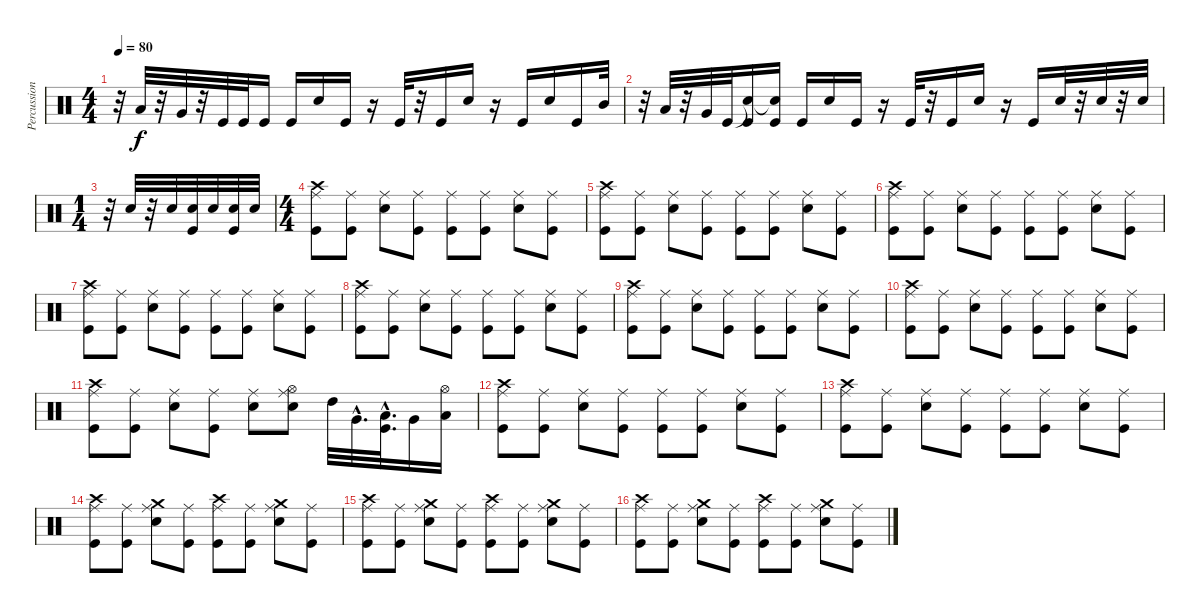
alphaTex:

\track ("Percussions" "Percussion") {instrument percussion}
\staff {score}
\articulation defaults
\ts (4 4)
\tempo 80
\clef neutral
\ks c
r.32{dy f} "Low Tom (hit)".32 r.32 "Very Low Tom (hit)".32 r.32 "Kick (hit)".32 "Kick (hit)".32 "Kick (hit)".16 "Kick (hit)".16 "Electric Snare (hit)".16 "Kick (hit)".16 r.16 "Kick (hit)".32 r.32 "Kick (hit)".16 "Snare (hit) 2".16 r.16 "Kick (hit)".16 "Snare (hit) 2".16 "Kick (hit)".16 "Mid Tom (hit)".32 |
r.32 "Low Tom (hit)".32 r.32 "Very Low Tom (hit)".32 "Kick (hit)".32 ("Snare (hit)"{t} "Kick (hit)").16 ("Snare (hit)"{t} "Kick (hit)").16 "Kick (hit)".16 "Electric Snare (hit)".16 "Kick (hit)".16 r.16 "Kick (hit)".32 r.32 "Kick (hit)".16 "Snare (hit) 2".16 r.16 "Kick (hit)".16 "Electric Snare (hit)".32 r.32 "Electric Snare (hit)".32 r.32 "Electric Snare (hit)".32 |
\ts (1 4)
r.32 "Electric Snare (hit)".32 r.32 "Electric Snare (hit)".32 ("Electric Snare (hit)" "Kick (hit)").32 "Electric Snare (hit)".32 ("Electric Snare (hit)" "Kick (hit)").32 "Electric Snare (hit)".32 |
\ts (4 4)
("Ride (middle)" "Crash high (hit)" "Kick (hit)").8 ("Ride (middle)" "Kick (hit)").8 ("Ride (middle)" "Electric Snare (hit)").8 ("Ride (middle)" "Kick (hit)").8 ("Ride (middle)" "Kick (hit)").8 ("Ride (middle)" "Kick (hit)").8 ("Ride (middle)" "Electric Snare (hit)").8 ("Ride (middle)" "Kick (hit)").8 |
("Ride (middle)" "Crash high (hit)" "Kick (hit)").8 ("Ride (middle)" "Kick (hit)").8 ("Ride (middle)" "Electric Snare (hit)").8 ("Ride (middle)" "Kick (hit)").8 ("Ride (middle)" "Kick (hit)").8 ("Ride (middle)" "Kick (hit)").8 ("Ride (middle)" "Electric Snare (hit)").8 ("Ride (middle)" "Kick (hit)").8 |
("Ride (middle)" "Crash high (hit)" "Kick (hit)").8 ("Ride (middle)" "Kick (hit)").8 ("Ride (middle)" "Electric Snare (hit)").8 ("Ride (middle)" "Kick (hit)").8 ("Ride (middle)" "Kick (hit)").8 ("Ride (middle)" "Kick (hit)").8 ("Ride (middle)" "Electric Snare (hit)").8 ("Ride (middle)" "Kick (hit)").8 |
("Ride (middle)" "Crash high (hit)" "Kick (hit)").8 ("Ride (middle)" "Kick (hit)").8 ("Ride (middle)" "Electric Snare (hit)").8 ("Ride (middle)" "Kick (hit)").8 ("Ride (middle)" "Kick (hit)").8 ("Ride (middle)" "Kick (hit)").8 ("Ride (middle)" "Electric Snare (hit)").8 ("Ride (middle)" "Kick (hit)").8 |
("Ride (middle)" "Crash high (hit)" "Kick (hit)").8 ("Ride (middle)" "Kick (hit)").8 ("Ride (middle)" "Electric Snare (hit)").8 ("Ride (middle)" "Kick (hit)").8 ("Ride (middle)" "Kick (hit)").8 ("Ride (middle)" "Kick (hit)").8 ("Ride (middle)" "Electric Snare (hit)").8 ("Ride (middle)" "Kick (hit)").8 |
("Ride (middle)" "Crash high (hit)" "Kick (hit)").8 ("Ride (middle)" "Kick (hit)").8 ("Ride (middle)" "Electric Snare (hit)").8 ("Ride (middle)" "Kick (hit)").8 ("Ride (middle)" "Kick (hit)").8 ("Ride (middle)" "Kick (hit)").8 ("Ride (middle)" "Electric Snare (hit)").8 ("Ride (middle)" "Kick (hit)").8 |
("Ride (middle)" "Crash high (hit)" "Kick (hit)").8 ("Ride (middle)" "Kick (hit)").8 ("Ride (middle)" "Electric Snare (hit)").8 ("Ride (middle)" "Kick (hit)").8 ("Ride (middle)" "Kick (hit)").8 ("Ride (middle)" "Kick (hit)").8 ("Ride (middle)" "Electric Snare (hit)").8 ("Ride (middle)" "Kick (hit)").8 |
("Ride (middle)" "Crash high (hit)" "Kick (hit)").8 ("Ride (middle)" "Kick (hit)").8 ("Ride (middle)" "Electric Snare (hit)").8 ("Ride (middle)" "Kick (hit)").8 ("Ride (middle)" "Electric Snare (hit)").8 ("Ride (middle)" "Hi-Hat (open)" "Electric Snare (hit)").8 "High Tom (hit)".32 "Very Low Tom (hit)"{hac}.32{d} ("Low Tom (hit)"{hac} "Kick (hit)"{hac}).32{d} "Very Low Tom (hit)".16 ("Hi-Hat (open)" "Low Floor Tom (hit)").16 |
("Ride (middle)" "Crash high (hit)" "Kick (hit)").8 ("Ride (middle)" "Kick (hit)").8 ("Ride (middle)" "Electric Snare (hit)").8 ("Ride (middle)" "Kick (hit)").8 ("Ride (middle)" "Kick (hit)").8 ("Ride (middle)" "Kick (hit)").8 ("Ride (middle)" "Electric Snare (hit)").8 ("Ride (middle)" "Kick (hit)").8 |
("Ride (middle)" "Crash high (hit)" "Kick (hit)").8 ("Ride (middle)" "Kick (hit)").8 ("Ride (middle)" "Electric Snare (hit)").8 ("Ride (middle)" "Kick (hit)").8 ("Ride (middle)" "Kick (hit)").8 ("Ride (middle)" "Kick (hit)").8 ("Ride (middle)" "Electric Snare (hit)").8 ("Ride (middle)" "Kick (hit)").8 |
("Ride (middle)" "Crash high (hit)" "Kick (hit)").8 ("Ride (middle)" "Kick (hit)").8 ("Ride (middle)" "Crash medium (hit)" "Electric Snare (hit)").8 ("Ride (middle)" "Kick (hit)").8 ("Ride (middle)" "Crash high (hit)" "Kick (hit)").8 ("Ride (middle)" "Kick (hit)").8 ("Ride (middle)" "Crash medium (hit)" "Electric Snare (hit)").8 ("Ride (middle)" "Kick (hit)").8 |
("Ride (middle)" "Crash high (hit)" "Kick (hit)").8 ("Ride (middle)" "Kick (hit)").8 ("Ride (middle)" "Crash medium (hit)" "Electric Snare (hit)").8 ("Ride (middle)" "Kick (hit)").8 ("Ride (middle)" "Crash high (hit)" "Kick (hit)").8 ("Ride (middle)" "Kick (hit)").8 ("Ride (middle)" "Crash medium (hit)" "Electric Snare (hit)").8 ("Ride (middle)" "Kick (hit)").8 |
("Ride (middle)" "Crash high (hit)" "Kick (hit)").8 ("Ride (middle)" "Kick (hit)").8 ("Ride (middle)" "Crash medium (hit)" "Electric Snare (hit)").8 ("Ride (middle)" "Kick (hit)").8 ("Ride (middle)" "Crash high (hit)" "Kick (hit)").8 ("Ride (middle)" "Kick (hit)").8 ("Ride (middle)" "Crash medium (hit)" "Electric Snare (hit)").8 ("Ride (middle)" "Kick (hit)").8
